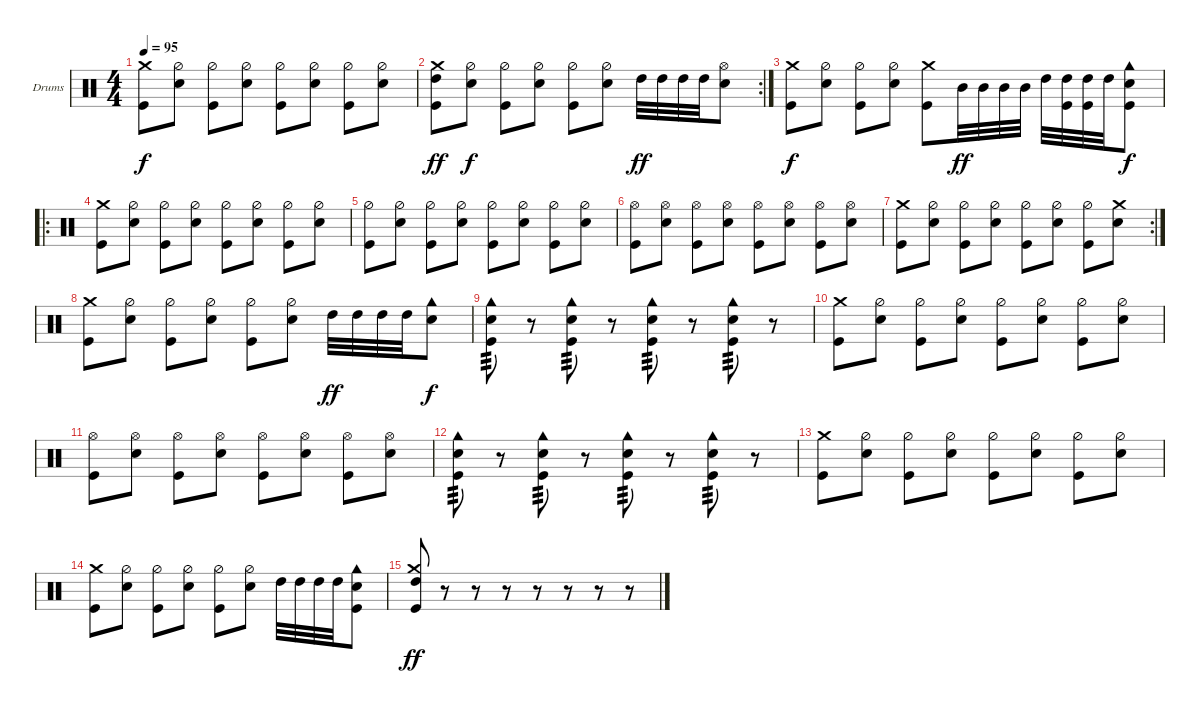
\defaultSystemsLayout 4
\bracketExtendMode groupsimilarinstruments
\firstSystemTrackNameOrientation horizontal
\otherSystemsTrackNameOrientation horizontal
\track ("Drumkit" "Drums") {instrument percussion}
\staff {score}
\articulation defaults
\ts (4 4)
\tempo 95
\clef neutral
\scale
0.322034
\ks c
("Kick (hit)" "Crash medium (hit)").8{dy f} ("Snare (hit) 2" "Hi-Hat (half)").8 ("Kick (hit)" "Hi-Hat (half)").8 ("Snare (hit) 2" "Hi-Hat (half)").8 ("Kick (hit)" "Hi-Hat (half)").8 ("Snare (hit) 2" "Hi-Hat (half)").8 ("Kick (hit)" "Hi-Hat (half)").8 ("Snare (hit) 2" "Hi-Hat (half)").8 |
\rc 2
\scale
0.355932 ("Kick (hit)" "Crash medium (hit)" "High Tom (hit)").8{dy ff} ("Snare (hit) 2" "Hi-Hat (half)").8{dy f} ("Kick (hit)" "Hi-Hat (half)").8 ("Snare (hit) 2" "Hi-Hat (half)").8 ("Kick (hit)" "Hi-Hat (half)").8 ("Snare (hit) 2" "Hi-Hat (half)").8 "High Tom (hit)".32{dy ff} "High Tom (hit)".32 "High Tom (hit)".32 "High Tom (hit)".32 ("Snare (hit) 2" "Hi-Hat (open)").8 |
\scale
0.322034 ("Kick (hit)" "Crash medium (hit)").8{dy f} ("Snare (hit) 2" "Hi-Hat (half)").8 ("Kick (hit)" "Hi-Hat (half)").8 ("Snare (hit) 2" "Hi-Hat (half)").8 ("Kick (hit)" "Crash medium (hit)").8 "Mid Tom (hit)".32{dy ff} "Mid Tom (hit)".32 "Mid Tom (hit)".32 "Mid Tom (hit)".32 "High Tom (hit)".32 ("High Tom (hit)" "Kick (hit)").32 ("High Tom (hit)" "Kick (hit)").32 "High Tom (hit)".32 ("Snare (hit) 2" "Cowbell high (hit)" "Kick (hit)").8{dy f} |
\ro
\scale
0.377049 ("Kick (hit)" "Crash medium (hit)").8 ("Snare (hit) 2" "Hi-Hat (half)").8 ("Kick (hit)" "Hi-Hat (half)").8 ("Snare (hit) 2" "Hi-Hat (half)").8 ("Kick (hit)" "Hi-Hat (half)").8 ("Snare (hit) 2" "Hi-Hat (half)").8 ("Kick (hit)" "Hi-Hat (half)").8 ("Snare (hit) 2" "Hi-Hat (half)").8 |
\scale
0.311475 ("Kick (hit)" "Hi-Hat (half)").8 ("Snare (hit) 2" "Hi-Hat (half)").8 ("Kick (hit)" "Hi-Hat (half)").8 ("Snare (hit) 2" "Hi-Hat (half)").8 ("Kick (hit)" "Hi-Hat (half)").8 ("Snare (hit) 2" "Hi-Hat (half)").8 ("Kick (hit)" "Hi-Hat (half)").8 ("Snare (hit) 2" "Hi-Hat (half)").8 |
\scale
0.311475 ("Kick (hit)" "Hi-Hat (open)").8 ("Snare (hit) 2" "Hi-Hat (open)").8 ("Kick (hit)" "Hi-Hat (open)").8 ("Snare (hit) 2" "Hi-Hat (open)").8 ("Kick (hit)" "Hi-Hat (open)").8 ("Snare (hit) 2" "Hi-Hat (open)").8 ("Kick (hit)" "Hi-Hat (open)").8 ("Snare (hit) 2" "Hi-Hat (open)").8 |
\rc 2
\scale
0.355932 ("Kick (hit)" "Crash medium (hit)").8 ("Snare (hit) 2" "Hi-Hat (half)").8 ("Kick (hit)" "Hi-Hat (half)").8 ("Snare (hit) 2" "Hi-Hat (half)").8 ("Kick (hit)" "Hi-Hat (half)").8 ("Snare (hit) 2" "Hi-Hat (half)").8 ("Kick (hit)" "Hi-Hat (half)").8 ("Crash medium (hit)" "Snare (hit) 2").8 |
\scale
0.322034 ("Kick (hit)" "Crash medium (hit)").8 ("Snare (hit) 2" "Hi-Hat (half)").8 ("Kick (hit)" "Hi-Hat (half)").8 ("Snare (hit) 2" "Hi-Hat (half)").8 ("Kick (hit)" "Hi-Hat (half)").8 ("Snare (hit) 2" "Hi-Hat (half)").8 "High Tom (hit)".32{dy ff} "High Tom (hit)".32 "High Tom (hit)".32 "High Tom (hit)".32 ("Snare (hit) 2" "Cowbell high (hit)").8{dy f} |
\scale
0.322034 ("Snare (hit) 2" "Cowbell high (hit)" "Kick (hit)").8{tp 3} r.8 ("Snare (hit) 2" "Cowbell high (hit)" "Kick (hit)").8{tp 3} r.8 ("Snare (hit) 2" "Cowbell high (hit)" "Kick (hit)").8{tp 3} r.8 ("Snare (hit) 2" "Cowbell high (hit)" "Kick (hit)").8{tp 3} r.8 |
\scale
0.333333 ("Kick (hit)" "Crash medium (hit)").8 ("Snare (hit) 2" "Hi-Hat (half)").8 ("Kick (hit)" "Hi-Hat (half)").8 ("Snare (hit) 2" "Hi-Hat (half)").8 ("Kick (hit)" "Hi-Hat (half)").8 ("Snare (hit) 2" "Hi-Hat (half)").8 ("Kick (hit)" "Hi-Hat (half)").8 ("Snare (hit) 2" "Hi-Hat (half)").8 |
("Kick (hit)" "Hi-Hat (open)").8 ("Snare (hit) 2" "Hi-Hat (open)").8 ("Kick (hit)" "Hi-Hat (open)").8 ("Snare (hit) 2" "Hi-Hat (open)").8 ("Kick (hit)" "Hi-Hat (open)").8 ("Snare (hit) 2" "Hi-Hat (open)").8 ("Kick (hit)" "Hi-Hat (open)").8 ("Snare (hit) 2" "Hi-Hat (open)").8 |
\scale
0.333333 ("Snare (hit) 2" "Cowbell high (hit)" "Kick (hit)").8{tp 3} r.8 ("Snare (hit) 2" "Cowbell high (hit)" "Kick (hit)").8{tp 3} r.8 ("Snare (hit) 2" "Cowbell high (hit)" "Kick (hit)").8{tp 3} r.8 ("Snare (hit) 2" "Cowbell high (hit)" "Kick (hit)").8{tp 3} r.8 |
\scale
0.333333 ("Kick (hit)" "Crash medium (hit)").8 ("Snare (hit) 2" "Hi-Hat (half)").8 ("Kick (hit)" "Hi-Hat (half)").8 ("Snare (hit) 2" "Hi-Hat (half)").8 ("Kick (hit)" "Hi-Hat (half)").8 ("Snare (hit) 2" "Hi-Hat (half)").8 ("Kick (hit)" "Hi-Hat (half)").8 ("Snare (hit) 2" "Hi-Hat (half)").8 |
("Kick (hit)" "Crash medium (hit)").8 ("Snare (hit) 2" "Hi-Hat (half)").8 ("Kick (hit)" "Hi-Hat (half)").8 ("Snare (hit) 2" "Hi-Hat (half)").8 ("Kick (hit)" "Hi-Hat (half)").8 ("Snare (hit) 2" "Hi-Hat (half)").8 "High Tom (hit)".32 "High Tom (hit)".32 "High Tom (hit)".32 "High Tom (hit)".32 ("Snare (hit) 2" "Cowbell high (hit)" "Kick (hit)").8 |
("Kick (hit)" "Crash medium (hit)" "High Tom (hit)").8{dy ff} r.8 r.8 r.8 r.8 r.8 r.8 r.8
